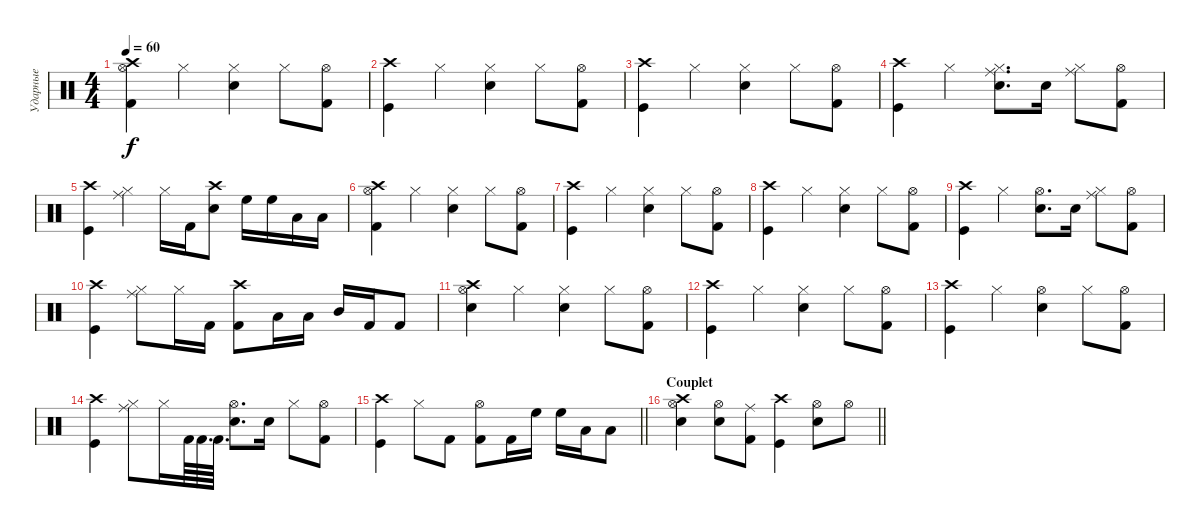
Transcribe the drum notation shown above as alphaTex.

\track ("Ударные" "Ударные") {instrument percussion}
\staff {score}
\articulation defaults
\ts (4 4)
\tempo 60
\clef neutral
\ks c
("Crash high (hit)" "Hi-Hat (open)" "Kick (hit) 2").4{dy f} "Hi-Hat (closed)".4 ("Hi-Hat (closed)" "Snare (hit) 2").4 "Hi-Hat (closed)".8 ("Hi-Hat (open)" "Kick (hit) 2").8 |
("Crash high (hit)" "Kick (hit)").4 "Hi-Hat (closed)".4 ("Hi-Hat (closed)" "Snare (hit) 2").4 "Hi-Hat (closed)".8 ("Hi-Hat (open)" "Kick (hit) 2").8 |
("Crash high (hit)" "Kick (hit)").4 "Hi-Hat (closed)".4 ("Hi-Hat (closed)" "Snare (hit) 2").4 "Hi-Hat (closed)".8 ("Hi-Hat (open)" "Kick (hit) 2").8 |
("Crash high (hit)" "Kick (hit)").4 "Hi-Hat (closed)".4 ("Ride (middle)" "Hi-Hat (closed)" "Snare (hit) 2").8{d} "Snare (hit) 2".16 ("Ride (middle)" "Hi-Hat (closed)").8 ("Hi-Hat (open)" "Kick (hit) 2").8 |
("Crash high (hit)" "Kick (hit)").4 ("Ride (middle)" "Hi-Hat (closed)").4 "Hi-Hat (closed)".16 "Kick (hit) 2".16 ("Crash high (hit)" "Snare (hit) 2").8 "High Floor Tom (hit)".16 "High Floor Tom (hit)".16 "Low Tom (hit)".16 "Low Tom (hit)".16 |
("Crash high (hit)" "Hi-Hat (open)" "Kick (hit) 2").4 "Hi-Hat (closed)".4 ("Hi-Hat (closed)" "Snare (hit) 2").4 "Hi-Hat (closed)".8 ("Hi-Hat (open)" "Kick (hit) 2").8 |
("Crash high (hit)" "Kick (hit)").4 "Hi-Hat (closed)".4 ("Hi-Hat (closed)" "Snare (hit) 2").4 "Hi-Hat (closed)".8 ("Hi-Hat (open)" "Kick (hit) 2").8 |
("Crash high (hit)" "Kick (hit)").4 "Hi-Hat (closed)".4 ("Hi-Hat (closed)" "Snare (hit) 2").4 "Hi-Hat (closed)".8 ("Hi-Hat (open)" "Kick (hit) 2").8 |
("Crash high (hit)" "Kick (hit)").4 "Hi-Hat (closed)".4 ("Hi-Hat (open)" "Snare (hit) 2").8{d} "Snare (hit) 2".16 ("Ride (middle)" "Hi-Hat (closed)").8 ("Hi-Hat (open)" "Kick (hit) 2").8 |
("Crash high (hit)" "Kick (hit)").4 ("Ride (middle)" "Hi-Hat (closed)").8 "Hi-Hat (closed)".16 "Kick (hit) 2".16 ("Crash high (hit)" "Kick (hit) 2").8 "Low Tom (hit)".16 "Low Tom (hit)".16 "Mid Tom (hit)".16 "Kick (hit) 2".16 "Kick (hit) 2".8 |
("Crash high (hit)" "Hi-Hat (open)" "Snare (hit) 2").4 "Hi-Hat (closed)".4 ("Hi-Hat (closed)" "Snare (hit) 2").4 "Hi-Hat (closed)".8 ("Hi-Hat (open)" "Kick (hit) 2").8 |
("Crash high (hit)" "Kick (hit)").4 "Hi-Hat (closed)".4 ("Hi-Hat (closed)" "Snare (hit) 2").4 "Hi-Hat (closed)".8 ("Hi-Hat (open)" "Kick (hit) 2").8 |
("Crash high (hit)" "Kick (hit)").4 "Hi-Hat (closed)".4 ("Hi-Hat (open)" "Snare (hit) 2").4 "Hi-Hat (closed)".8 ("Hi-Hat (open)" "Kick (hit) 2").8 |
("Crash high (hit)" "Kick (hit)").4 ("Ride (middle)" "Hi-Hat (closed)").8 "Hi-Hat (closed)".16 "Kick (hit) 2".64 "Kick (hit) 2".64{d} "Kick (hit) 2".64{d} ("Hi-Hat (open)" "Snare (hit) 2").8{d} "Snare (hit) 2".16 "Hi-Hat (closed)".8 ("Hi-Hat (open)" "Kick (hit) 2").8 |
\barLineRight lightlight
("Crash high (hit)" "Kick (hit)").4 "Hi-Hat (closed)".8 "Kick (hit) 2".8 ("Hi-Hat (open)" "Kick (hit) 2").8 "Kick (hit) 2".16 "High Floor Tom (hit)".16 "High Floor Tom (hit)".16 "Low Tom (hit)".16 "Low Tom (hit)".8 |
\section ("" "Couplet")
\barLineRight lightlight
("Hi-Hat (open)" "Crash high (hit)" "Snare (hit) 2").4 ("Hi-Hat (open)" "Snare (hit) 2").8 ("Ride (middle)" "Kick (hit) 2").8 ("Crash high (hit)" "Kick (hit)").4 ("Hi-Hat (open)" "Snare (hit) 2").8 "Hi-Hat (open)".8
